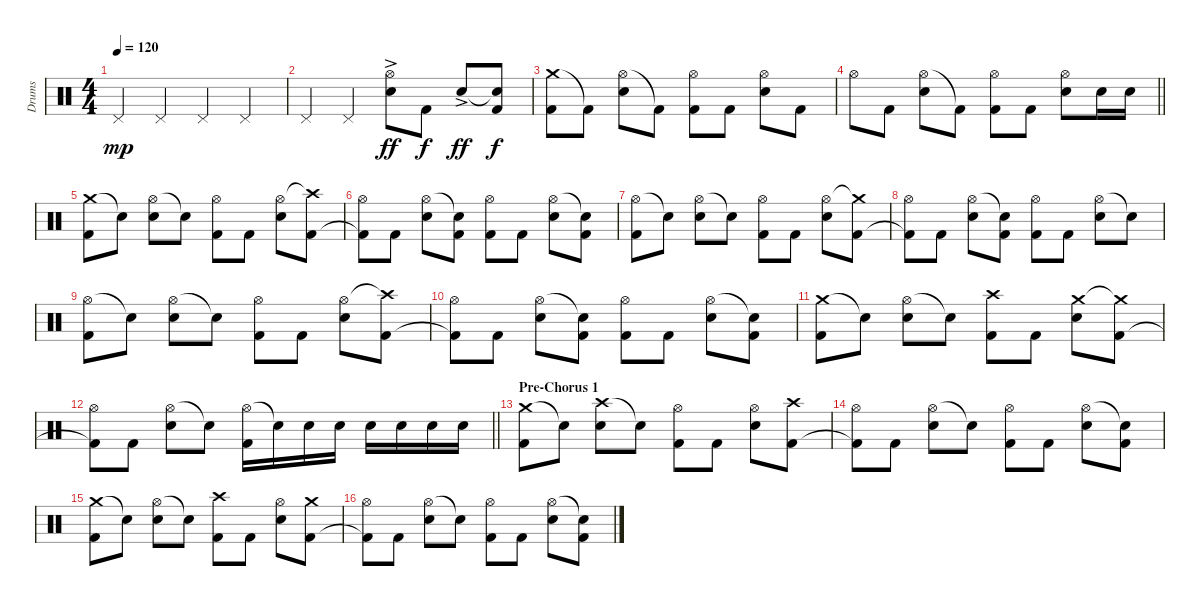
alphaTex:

\track ("Drums" "Drums") {instrument percussion}
\staff {score}
\articulation defaults
\ts (4 4)
\tempo 120
\clef neutral
\ks c "Pedal Hi-Hat (hit)".4{dy mp} "Pedal Hi-Hat (hit)".4 "Pedal Hi-Hat (hit)".4 "Pedal Hi-Hat (hit)".4
|
"Pedal Hi-Hat (hit)".4 "Pedal Hi-Hat (hit)".4 ("Hi-Hat (open)" "Snare (hit) 2"{ac}).8{dy ff} "Kick (hit) 2".8{dy f} "Snare (hit) 2"{ac}.8{dy ff} ("Snare (hit)"{t} "Kick (hit) 2").8{dy f} |
("Crash medium (hit)" "Kick (hit) 2").8 "Kick (hit) 2"{t}.8 ("Hi-Hat (open)" "Snare (hit) 2").8 "Kick (hit) 2"{t}.8 ("Hi-Hat (open)" "Kick (hit) 2").8 "Kick (hit) 2".8 ("Hi-Hat (open)" "Snare (hit) 2").8 "Kick (hit) 2".8 |
\barLineRight lightlight "Hi-Hat (open)".8 "Kick (hit) 2".8
("Hi-Hat (open)" "Snare (hit) 2").8 "Kick (hit) 2"{t}.8 ("Hi-Hat (open)" "Kick (hit) 2").8 "Kick (hit) 2".8 ("Hi-Hat (open)" "Snare (hit) 2").8 "Snare (hit) 2".16 "Snare (hit) 2".16 |
("Crash medium (hit)" "Kick (hit) 2").8 "Snare (hit)"{t}.8 ("Hi-Hat (open)" "Snare (hit) 2").8 "Snare (hit)"{t}.8 ("Hi-Hat (open)" "Kick (hit) 2").8 "Kick (hit) 2".8 ("Hi-Hat (open)" "Snare (hit) 2").8 ("Crash high (hit)"{t} "Kick (hit) 2").8 |
("Hi-Hat (open)" "Kick (hit) 2"{t}).8 "Kick (hit) 2".8 ("Hi-Hat (open)" "Snare (hit) 2").8 ("Snare (hit)"{t} "Kick (hit) 2").8 ("Hi-Hat (open)" "Kick (hit) 2").8 "Kick (hit) 2".8 ("Hi-Hat (open)" "Snare (hit) 2").8 ("Snare (hit)"{t} "Kick (hit) 2").8 |
("Hi-Hat (open)" "Kick (hit) 2").8 "Snare (hit)"{t}.8 ("Hi-Hat (open)" "Snare (hit) 2").8 "Snare (hit)"{t}.8 ("Hi-Hat (open)" "Kick (hit) 2").8 "Kick (hit) 2".8 ("Hi-Hat (open)" "Snare (hit) 2").8 ("Crash medium (hit)"{t} "Kick (hit) 2").8 |
("Hi-Hat (open)" "Kick (hit) 2"{t}).8 "Kick (hit) 2".8 ("Hi-Hat (open)" "Snare (hit) 2").8 ("Snare (hit)"{t} "Kick (hit) 2").8 ("Hi-Hat (open)" "Kick (hit) 2").8 "Kick (hit) 2".8 ("Hi-Hat (open)" "Snare (hit) 2").8 "Snare (hit)"{t}.8 |
("Hi-Hat (open)" "Kick (hit) 2").8 "Snare (hit)"{t}.8 ("Hi-Hat (open)" "Snare (hit) 2").8 "Snare (hit)"{t}.8 ("Hi-Hat (open)" "Kick (hit) 2").8 "Kick (hit) 2".8 ("Hi-Hat (open)" "Snare (hit) 2").8 ("Crash high (hit)"{t} "Kick (hit) 2").8 |
("Hi-Hat (open)" "Kick (hit) 2"{t}).8 "Kick (hit) 2".8 ("Hi-Hat (open)" "Snare (hit) 2").8 ("Snare (hit)"{t} "Kick (hit) 2").8 ("Hi-Hat (open)" "Kick (hit) 2").8 "Kick (hit) 2".8 ("Hi-Hat (open)" "Snare (hit) 2").8 ("Snare (hit)"{t} "Kick (hit) 2").8 |
("Crash medium (hit)" "Kick (hit) 2").8 "Snare (hit)"{t}.8 ("Hi-Hat (open)" "Snare (hit) 2").8 "Snare (hit)"{t}.8 ("Crash high (hit)" "Kick (hit) 2").8 "Kick (hit) 2".8 ("Crash medium (hit)" "Snare (hit) 2").8 ("Crash medium (hit)"{t} "Kick (hit) 2").8 |
\barLineRight lightlight
("Hi-Hat (open)" "Kick (hit) 2"{t}).8 "Kick (hit) 2".8 ("Hi-Hat (open)" "Snare (hit) 2").8 "Snare (hit)"{t}.8 ("Hi-Hat (open)" "Kick (hit) 2").16 "Snare (hit)"{t}.16 "Snare (hit) 2".16 "Snare (hit) 2".16 "Snare (hit) 2".16 "Snare (hit) 2".16 "Snare (hit) 2".16 "Snare (hit) 2".16 |
\section ("" "Pre-Chorus 1")
("Crash medium (hit)" "Kick (hit) 2").8 "Snare (hit)"{t}.8 ("Crash high (hit)" "Snare (hit) 2").8 "Snare (hit)"{t}.8 ("Hi-Hat (open)" "Kick (hit) 2").8 "Kick (hit) 2".8 ("Hi-Hat (open)" "Snare (hit) 2").8 ("Crash high (hit)" "Kick (hit) 2").8 |
("Hi-Hat (open)" "Kick (hit) 2"{t}).8 "Kick (hit) 2".8 ("Hi-Hat (open)" "Snare (hit) 2").8 "Snare (hit)"{t}.8 ("Hi-Hat (open)" "Kick (hit) 2").8 "Kick (hit) 2".8 ("Hi-Hat (open)" "Snare (hit) 2").8 ("Snare (hit)"{t} "Kick (hit) 2").8 |
("Crash medium (hit)" "Kick (hit) 2").8 "Snare (hit)"{t}.8 ("Hi-Hat (open)" "Snare (hit) 2").8 "Snare (hit)"{t}.8 ("Crash high (hit)" "Kick (hit) 2").8 "Kick (hit) 2".8 ("Hi-Hat (open)" "Snare (hit) 2").8 ("Crash medium (hit)" "Kick (hit) 2").8 |
("Hi-Hat (open)" "Kick (hit) 2"{t}).8 "Kick (hit) 2".8 ("Hi-Hat (open)" "Snare (hit) 2").8 "Snare (hit)"{t}.8 ("Hi-Hat (open)" "Kick (hit) 2").8 "Kick (hit) 2".8 ("Hi-Hat (open)" "Snare (hit) 2").8 ("Snare (hit)"{t} "Kick (hit) 2").8
